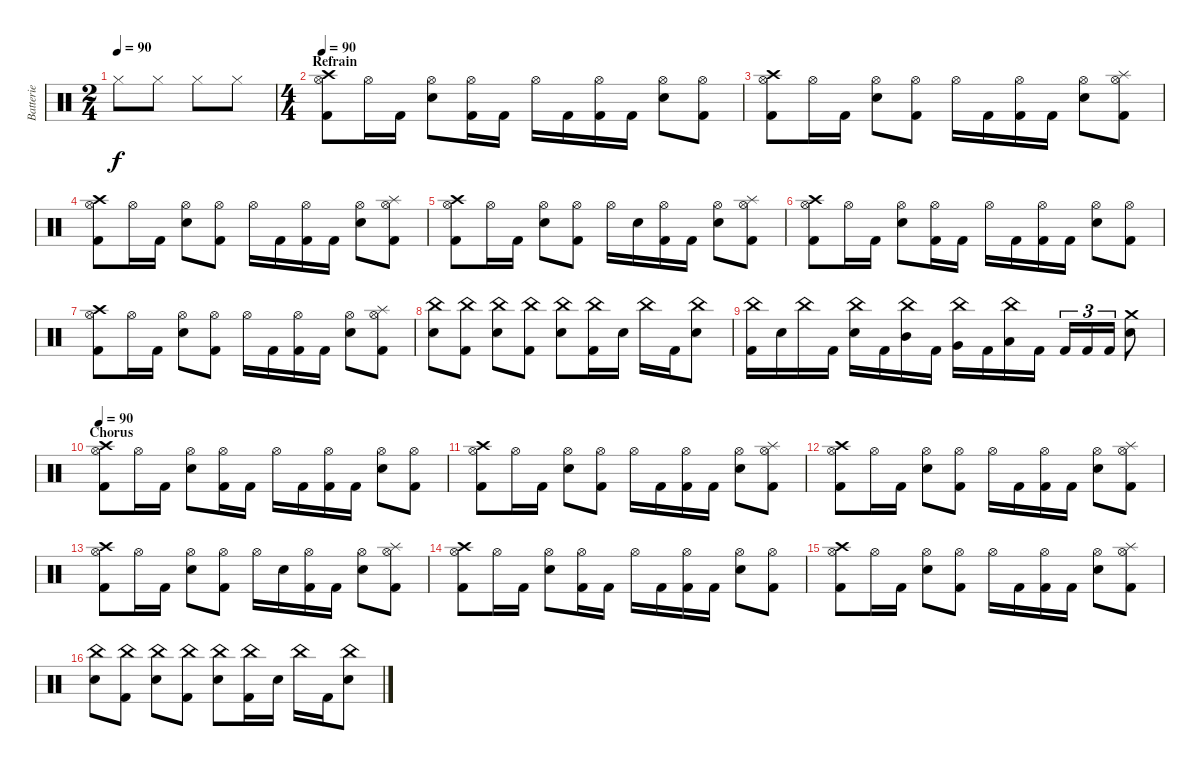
\track ("Batterie" "Batterie") {instrument percussion}
\staff {score}
\articulation defaults
\ts (2 4)
\tempo 90
\clef neutral
\ks c "Hi-Hat (closed)".8{dy f} "Hi-Hat (closed)".8 "Hi-Hat (closed)".8 "Hi-Hat (closed)".8
|
\ts (4 4)
\section ("" "Refrain")
\tempo 90
("Hi-Hat (open)" "Crash high (hit)" "Kick (hit) 2").8 "Hi-Hat (open)".16 "Kick (hit) 2".16 ("Hi-Hat (open)" "Electric Snare (hit)").8 ("Hi-Hat (open)" "Kick (hit) 2").16 "Kick (hit) 2".16 "Hi-Hat (open)".16 "Kick (hit) 2".16 ("Hi-Hat (open)" "Kick (hit) 2").16 "Kick (hit) 2".16 ("Hi-Hat (open)" "Electric Snare (hit)").8 ("Hi-Hat (open)" "Kick (hit) 2").8 |
("Hi-Hat (open)" "Crash high (hit)" "Kick (hit) 2").8 "Hi-Hat (open)".16 "Kick (hit) 2".16 ("Hi-Hat (open)" "Electric Snare (hit)").8 ("Hi-Hat (open)" "Kick (hit) 2").8 "Hi-Hat (open)".16 "Kick (hit) 2".16 ("Hi-Hat (open)" "Kick (hit) 2").16 "Kick (hit) 2".16 ("Hi-Hat (open)" "Electric Snare (hit)").8 ("Hi-Hat (open)" "Splash (hit)" "Kick (hit) 2").8 |
("Hi-Hat (open)" "Crash high (hit)" "Kick (hit) 2").8 "Hi-Hat (open)".16 "Kick (hit) 2".16 ("Hi-Hat (open)" "Electric Snare (hit)").8 ("Hi-Hat (open)" "Kick (hit) 2").8 "Hi-Hat (open)".16 "Kick (hit) 2".16 ("Hi-Hat (open)" "Kick (hit) 2").16 "Kick (hit) 2".16 ("Hi-Hat (open)" "Electric Snare (hit)").8 ("Hi-Hat (open)" "Splash (hit)" "Kick (hit) 2").8 |
("Hi-Hat (open)" "Crash high (hit)" "Kick (hit) 2").8 "Hi-Hat (open)".16 "Kick (hit) 2".16 ("Hi-Hat (open)" "Electric Snare (hit)").8 ("Hi-Hat (open)" "Kick (hit) 2").8 "Hi-Hat (open)".16 "Electric Snare (hit)".16 ("Hi-Hat (open)" "Kick (hit) 2").16 "Kick (hit) 2".16 ("Hi-Hat (open)" "Electric Snare (hit)").8 ("Hi-Hat (open)" "Splash (hit)" "Kick (hit) 2").8 |
("Hi-Hat (open)" "Crash high (hit)" "Kick (hit) 2").8 "Hi-Hat (open)".16 "Kick (hit) 2".16 ("Hi-Hat (open)" "Electric Snare (hit)").8 ("Hi-Hat (open)" "Kick (hit) 2").16 "Kick (hit) 2".16 "Hi-Hat (open)".16 "Kick (hit) 2".16 ("Hi-Hat (open)" "Kick (hit) 2").16 "Kick (hit) 2".16 ("Hi-Hat (open)" "Electric Snare (hit)").8 ("Hi-Hat (open)" "Kick (hit) 2").8 |
("Hi-Hat (open)" "Crash high (hit)" "Kick (hit) 2").8 "Hi-Hat (open)".16 "Kick (hit) 2".16 ("Hi-Hat (open)" "Electric Snare (hit)").8 ("Hi-Hat (open)" "Kick (hit) 2").8 "Hi-Hat (open)".16 "Kick (hit) 2".16 ("Hi-Hat (open)" "Kick (hit) 2").16 "Kick (hit) 2".16 ("Hi-Hat (open)" "Electric Snare (hit)").8 ("Hi-Hat (open)" "Splash (hit)" "Kick (hit) 2").8 |
("China (hit)" "Electric Snare (hit)").8 ("China (hit)" "Kick (hit) 2").8 ("China (hit)" "Electric Snare (hit)").8 ("China (hit)" "Kick (hit) 2").8 ("China (hit)" "Electric Snare (hit)").8 ("China (hit)" "Kick (hit) 2").16 "Electric Snare (hit)".16 "China (hit)".16 "Kick (hit) 2".16 ("China (hit)" "Electric Snare (hit)").8 |
("China (hit)" "Kick (hit) 2").16 "Electric Snare (hit)".16 "China (hit)".16 "Kick (hit) 2".16 ("China (hit)" "Electric Snare (hit)").16 "Kick (hit) 2".16 ("China (hit)" "Mid Tom (hit)").16 "Kick (hit) 2".16 ("China (hit)" "Very Low Tom (hit)").16 "Kick (hit) 2".16 ("China (hit)" "Low Floor Tom (hit)").16 "Kick (hit) 2".16 "Kick (hit) 2".16{tu (3 2)} "Kick (hit) 2".16{tu (3 2)} "Kick (hit) 2".16{tu (3 2)} ("Crash medium (hit)" "Snare (hit) 2").8 |
\section ("" "Chorus")
\tempo 90
("Hi-Hat (open)" "Crash high (hit)" "Kick (hit) 2").8 "Hi-Hat (open)".16 "Kick (hit) 2".16 ("Hi-Hat (open)" "Electric Snare (hit)").8 ("Hi-Hat (open)" "Kick (hit) 2").16 "Kick (hit) 2".16 "Hi-Hat (open)".16 "Kick (hit) 2".16 ("Hi-Hat (open)" "Kick (hit) 2").16 "Kick (hit) 2".16 ("Hi-Hat (open)" "Electric Snare (hit)").8 ("Hi-Hat (open)" "Kick (hit) 2").8 |
("Hi-Hat (open)" "Crash high (hit)" "Kick (hit) 2").8 "Hi-Hat (open)".16 "Kick (hit) 2".16 ("Hi-Hat (open)" "Electric Snare (hit)").8 ("Hi-Hat (open)" "Kick (hit) 2").8 "Hi-Hat (open)".16 "Kick (hit) 2".16 ("Hi-Hat (open)" "Kick (hit) 2").16 "Kick (hit) 2".16 ("Hi-Hat (open)" "Electric Snare (hit)").8 ("Hi-Hat (open)" "Splash (hit)" "Kick (hit) 2").8 |
("Hi-Hat (open)" "Crash high (hit)" "Kick (hit) 2").8 "Hi-Hat (open)".16 "Kick (hit) 2".16 ("Hi-Hat (open)" "Electric Snare (hit)").8 ("Hi-Hat (open)" "Kick (hit) 2").8 "Hi-Hat (open)".16 "Kick (hit) 2".16 ("Hi-Hat (open)" "Kick (hit) 2").16 "Kick (hit) 2".16 ("Hi-Hat (open)" "Electric Snare (hit)").8 ("Hi-Hat (open)" "Splash (hit)" "Kick (hit) 2").8 |
("Hi-Hat (open)" "Crash high (hit)" "Kick (hit) 2").8 "Hi-Hat (open)".16 "Kick (hit) 2".16 ("Hi-Hat (open)" "Electric Snare (hit)").8 ("Hi-Hat (open)" "Kick (hit) 2").8 "Hi-Hat (open)".16 "Electric Snare (hit)".16 ("Hi-Hat (open)" "Kick (hit) 2").16 "Kick (hit) 2".16 ("Hi-Hat (open)" "Electric Snare (hit)").8 ("Hi-Hat (open)" "Splash (hit)" "Kick (hit) 2").8 |
("Hi-Hat (open)" "Crash high (hit)" "Kick (hit) 2").8 "Hi-Hat (open)".16 "Kick (hit) 2".16 ("Hi-Hat (open)" "Electric Snare (hit)").8 ("Hi-Hat (open)" "Kick (hit) 2").16 "Kick (hit) 2".16 "Hi-Hat (open)".16 "Kick (hit) 2".16 ("Hi-Hat (open)" "Kick (hit) 2").16 "Kick (hit) 2".16 ("Hi-Hat (open)" "Electric Snare (hit)").8 ("Hi-Hat (open)" "Kick (hit) 2").8 |
("Hi-Hat (open)" "Crash high (hit)" "Kick (hit) 2").8 "Hi-Hat (open)".16 "Kick (hit) 2".16 ("Hi-Hat (open)" "Electric Snare (hit)").8 ("Hi-Hat (open)" "Kick (hit) 2").8 "Hi-Hat (open)".16 "Kick (hit) 2".16 ("Hi-Hat (open)" "Kick (hit) 2").16 "Kick (hit) 2".16 ("Hi-Hat (open)" "Electric Snare (hit)").8 ("Hi-Hat (open)" "Splash (hit)" "Kick (hit) 2").8 |
("China (hit)" "Electric Snare (hit)").8 ("China (hit)" "Kick (hit) 2").8 ("China (hit)" "Electric Snare (hit)").8 ("China (hit)" "Kick (hit) 2").8 ("China (hit)" "Electric Snare (hit)").8 ("China (hit)" "Kick (hit) 2").16 "Electric Snare (hit)".16 "China (hit)".16 "Kick (hit) 2".16 ("China (hit)" "Electric Snare (hit)").8
